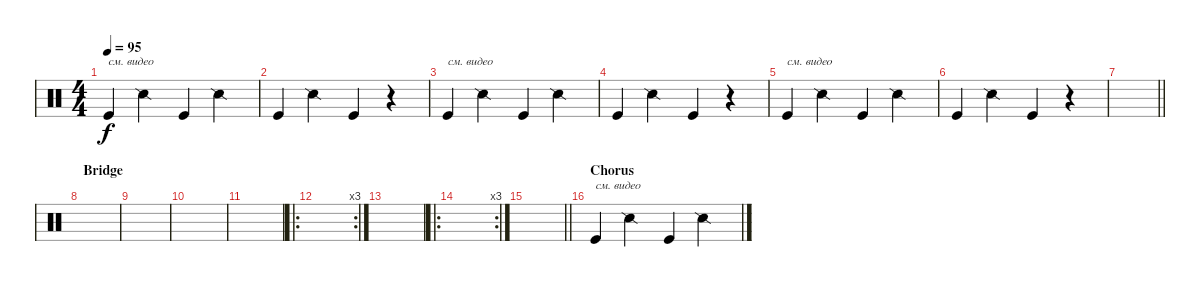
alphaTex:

\track "" {instrument percussion}
\staff {score}
\articulation defaults
\ts (4 4)
\tempo 95
\clef neutral
\ks c "Kick (hit)".4{txt "см. видео" dy f} "Snare (side stick) 2".4 "Kick (hit)".4 "Snare (side stick) 2".4
|
"Kick (hit)".4 "Snare (side stick) 2".4 "Kick (hit)".4 r.4 |
"Kick (hit)".4{txt "см. видео"} "Snare (side stick) 2".4 "Kick (hit)".4 "Snare (side stick) 2".4 |
"Kick (hit)".4 "Snare (side stick) 2".4 "Kick (hit)".4 r.4 |
"Kick (hit)".4{txt "см. видео"} "Snare (side stick) 2".4 "Kick (hit)".4 "Snare (side stick) 2".4 |
"Kick (hit)".4 "Snare (side stick) 2".4 "Kick (hit)".4 r.4 |
\barLineRight lightlight
|
\section ("" "Bridge")
|
|
|
|
\ro
\rc 3
|
|
\ro
\rc 3
|
\barLineRight lightlight
|
\section ("" "Chorus")
"Kick (hit)".4{txt "см. видео"} "Snare (side stick) 2".4 "Kick (hit)".4 "Snare (side stick) 2".4
